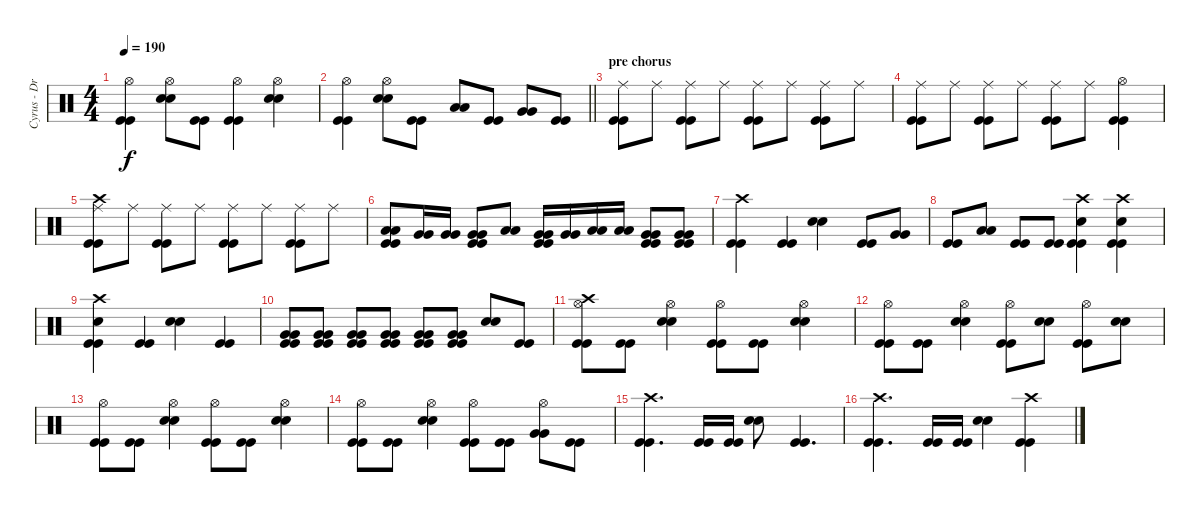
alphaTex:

\track ("Cyrus - Drums" "Cyrus - Dr") {instrument percussion}
\staff {score}
\articulation defaults
\ts (4 4)
\tempo 190
\clef neutral
\ks c
("Kick (hit)" "Kick (hit)" "Hi-Hat (open)").4{dy f} ("Snare (hit) 2" "Snare (hit) 2" "Hi-Hat (open)").8 ("Kick (hit)" "Kick (hit)").8 ("Kick (hit)" "Kick (hit)" "Hi-Hat (open)").4 ("Snare (hit) 2" "Snare (hit) 2" "Hi-Hat (open)").4 |
\barLineRight lightlight
("Kick (hit)" "Kick (hit)" "Hi-Hat (open)").4 ("Snare (hit) 2" "Snare (hit) 2" "Hi-Hat (open)").8 ("Kick (hit)" "Kick (hit)").8 ("Low Tom (hit)" "Low Tom (hit)").8 ("Kick (hit)" "Kick (hit)").8 ("Very Low Tom (hit)" "Very Low Tom (hit)").8 ("Kick (hit)" "Kick (hit)").8 |
\section ("" "pre chorus")
("Kick (hit)" "Kick (hit)" "Ride (middle)").8 "Ride (middle)".8 ("Kick (hit)" "Kick (hit)" "Ride (middle)").8 "Ride (middle)".8 ("Kick (hit)" "Kick (hit)" "Ride (middle)").8 "Ride (middle)".8 ("Kick (hit)" "Kick (hit)" "Ride (middle)").8 "Ride (middle)".8 |
("Kick (hit)" "Kick (hit)" "Ride (middle)").8 "Ride (middle)".8 ("Kick (hit)" "Kick (hit)" "Ride (middle)").8 "Ride (middle)".8 ("Kick (hit)" "Kick (hit)" "Ride (middle)").8 "Ride (middle)".8 ("Kick (hit)" "Kick (hit)" "Hi-Hat (open)").4 |
("Kick (hit)" "Kick (hit)" "Ride (middle)" "Crash high (hit)").8 "Ride (middle)".8 ("Kick (hit)" "Kick (hit)" "Ride (middle)").8 "Ride (middle)".8 ("Kick (hit)" "Kick (hit)" "Ride (middle)").8 "Ride (middle)".8 ("Kick (hit)" "Kick (hit)" "Ride (middle)").8 "Ride (middle)".8 |
("Kick (hit)" "Kick (hit)" "Low Tom (hit)" "Low Tom (hit)").8 ("Very Low Tom (hit)" "Very Low Tom (hit)").16 ("Very Low Tom (hit)" "Very Low Tom (hit)").16 ("Kick (hit)" "Kick (hit)" "Very Low Tom (hit)" "Very Low Tom (hit)").8 ("Low Tom (hit)" "Low Tom (hit)").8 ("Kick (hit)" "Kick (hit)" "Very Low Tom (hit)" "Very Low Tom (hit)").16 ("Very Low Tom (hit)" "Very Low Tom (hit)").16 ("Low Floor Tom (hit)" "Low Floor Tom (hit)").16 ("Low Floor Tom (hit)" "Low Floor Tom (hit)").16 ("Kick (hit)" "Kick (hit)" "Very Low Tom (hit)" "Very Low Tom (hit)").8 ("Kick (hit)" "Kick (hit)" "Very Low Tom (hit)" "Very Low Tom (hit)").8 |
("Kick (hit)" "Kick (hit)" "Crash high (hit)").4 ("Kick (hit)" "Kick (hit)").4 ("Snare (hit) 2" "Snare (hit) 2").4 ("Kick (hit)" "Kick (hit)").8 ("Very Low Tom (hit)" "Very Low Tom (hit)").8 |
("Kick (hit)" "Kick (hit)").8 ("Low Tom (hit)" "Low Tom (hit)").8 ("Kick (hit)" "Kick (hit)").8 ("Kick (hit)" "Kick (hit)").8 ("Kick (hit)" "Kick (hit)" "Snare (hit) 2" "Crash high (hit)").4 ("Kick (hit)" "Kick (hit)" "Snare (hit) 2" "Crash high (hit)").4 |
("Kick (hit)" "Kick (hit)" "Snare (hit) 2" "Crash high (hit)").4 ("Kick (hit)" "Kick (hit)").4 ("Snare (hit) 2" "Snare (hit) 2").4 ("Kick (hit)" "Kick (hit)").4 |
("Kick (hit)" "Kick (hit)" "Very Low Tom (hit)" "Very Low Tom (hit)").8 ("Kick (hit)" "Kick (hit)" "Very Low Tom (hit)" "Very Low Tom (hit)").8 ("Kick (hit)" "Kick (hit)" "Very Low Tom (hit)" "Very Low Tom (hit)").8 ("Kick (hit)" "Kick (hit)" "Very Low Tom (hit)" "Very Low Tom (hit)").8 ("Kick (hit)" "Kick (hit)" "Very Low Tom (hit)" "Very Low Tom (hit)").8 ("Kick (hit)" "Kick (hit)" "Very Low Tom (hit)" "Very Low Tom (hit)").8 ("Snare (hit) 2" "Snare (hit) 2").8 ("Kick (hit)" "Kick (hit)").8 |
("Kick (hit)" "Kick (hit)" "Hi-Hat (open)" "Crash high (hit)").8 ("Kick (hit)" "Kick (hit)").8 ("Snare (hit) 2" "Snare (hit) 2" "Hi-Hat (open)").4 ("Kick (hit)" "Kick (hit)" "Hi-Hat (open)").8 ("Kick (hit)" "Kick (hit)").8 ("Snare (hit) 2" "Snare (hit) 2" "Hi-Hat (open)").4 |
("Kick (hit)" "Kick (hit)" "Hi-Hat (open)").8 ("Kick (hit)" "Kick (hit)").8 ("Snare (hit) 2" "Snare (hit) 2" "Hi-Hat (open)").4 ("Kick (hit)" "Kick (hit)" "Hi-Hat (open)").8 ("Snare (hit) 2" "Snare (hit) 2").8 ("Kick (hit)" "Kick (hit)" "Hi-Hat (open)").8 ("Snare (hit) 2" "Snare (hit) 2").8 |
("Kick (hit)" "Kick (hit)" "Hi-Hat (open)").8 ("Kick (hit)" "Kick (hit)").8 ("Snare (hit) 2" "Snare (hit) 2" "Hi-Hat (open)").4 ("Kick (hit)" "Kick (hit)" "Hi-Hat (open)").8 ("Kick (hit)" "Kick (hit)").8 ("Snare (hit) 2" "Snare (hit) 2" "Hi-Hat (open)").4 |
("Kick (hit)" "Kick (hit)" "Hi-Hat (open)").8 ("Kick (hit)" "Kick (hit)").8 ("Snare (hit) 2" "Snare (hit) 2" "Hi-Hat (open)").4 ("Kick (hit)" "Kick (hit)" "Hi-Hat (open)").8 ("Kick (hit)" "Kick (hit)").8 ("Very Low Tom (hit)" "Very Low Tom (hit)" "Hi-Hat (open)").8 ("Kick (hit)" "Kick (hit)").8 |
("Kick (hit)" "Kick (hit)" "Crash high (hit)").4{d} ("Kick (hit)" "Kick (hit)").16 ("Kick (hit)" "Kick (hit)").16 ("Snare (hit) 2" "Snare (hit) 2").8 ("Kick (hit)" "Kick (hit)").4{d} |
("Kick (hit)" "Kick (hit)" "Crash high (hit)").4{d} ("Kick (hit)" "Kick (hit)").16 ("Kick (hit)" "Kick (hit)").16 ("Snare (hit) 2" "Snare (hit) 2").4 ("Kick (hit)" "Kick (hit)" "Crash high (hit)").4
